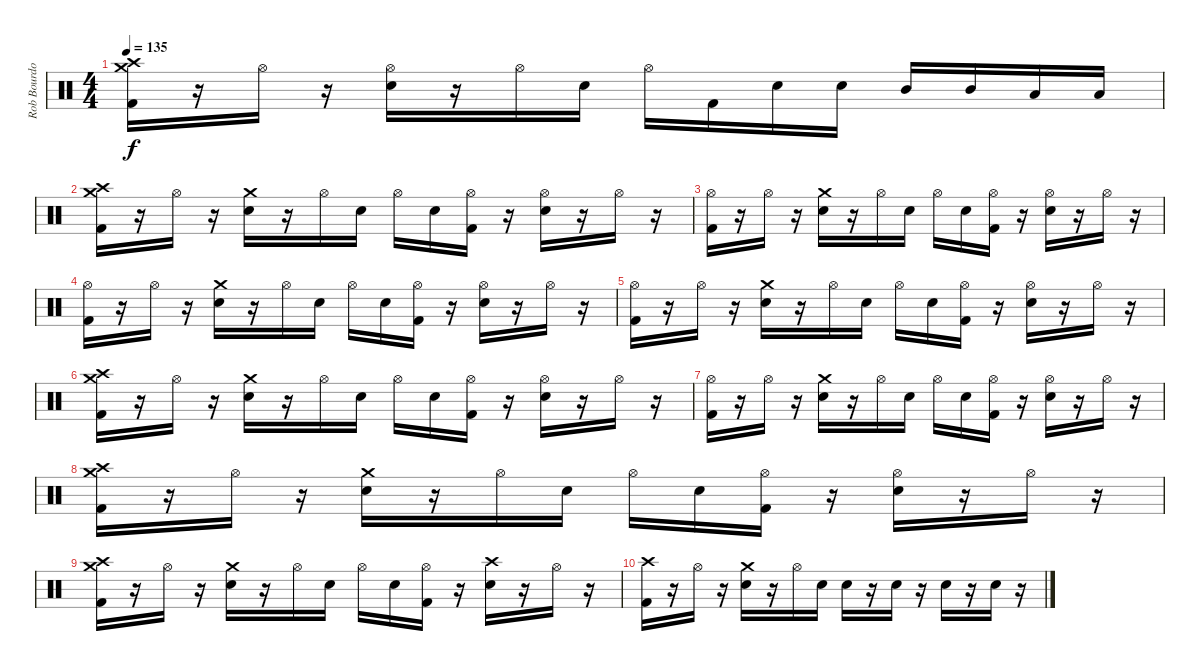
\track ("Rob Bourdon (Drums)" "Rob Bourdo") {instrument percussion}
\staff {score}
\articulation defaults
\ts (4 4)
\tempo 135
\clef neutral
\ks c
("Crash high (hit)" "Crash medium (hit)" "Kick (hit) 2").16{dy f} r.16 "Hi-Hat (open)".16 r.16 ("Hi-Hat (open)" "Electric Snare (hit)").16 r.16 "Hi-Hat (open)".16 "Electric Snare (hit)".16 "Hi-Hat (open)".16 "Kick (hit) 2".16 "Electric Snare (hit)".16 "Electric Snare (hit)".16 "Mid Tom (hit)".16 "Mid Tom (hit)".16 "Low Tom (hit)".16 "Low Tom (hit)".16 |
("Crash high (hit)" "Crash medium (hit)" "Kick (hit) 2").16 r.16 "Hi-Hat (open)".16 r.16 ("Crash medium (hit)" "Electric Snare (hit)").16 r.16 "Hi-Hat (open)".16 "Electric Snare (hit)".16 "Hi-Hat (open)".16 "Electric Snare (hit)".16 ("Hi-Hat (open)" "Kick (hit) 2").16 r.16 ("Hi-Hat (open)" "Electric Snare (hit)").16 r.16 "Hi-Hat (open)".16 r.16 |
("Hi-Hat (open)" "Kick (hit) 2").16 r.16 "Hi-Hat (open)".16 r.16 ("Crash medium (hit)" "Electric Snare (hit)").16 r.16 "Hi-Hat (open)".16 "Electric Snare (hit)".16 "Hi-Hat (open)".16 "Electric Snare (hit)".16 ("Hi-Hat (open)" "Kick (hit) 2").16 r.16 ("Hi-Hat (open)" "Electric Snare (hit)").16 r.16 "Hi-Hat (open)".16 r.16 |
("Hi-Hat (open)" "Kick (hit) 2").16 r.16 "Hi-Hat (open)".16 r.16 ("Crash medium (hit)" "Electric Snare (hit)").16 r.16 "Hi-Hat (open)".16 "Electric Snare (hit)".16 "Hi-Hat (open)".16 "Electric Snare (hit)".16 ("Hi-Hat (open)" "Kick (hit) 2").16 r.16 ("Hi-Hat (open)" "Electric Snare (hit)").16 r.16 "Hi-Hat (open)".16 r.16 |
("Hi-Hat (open)" "Kick (hit) 2").16 r.16 "Hi-Hat (open)".16 r.16 ("Crash medium (hit)" "Electric Snare (hit)").16 r.16 "Hi-Hat (open)".16 "Electric Snare (hit)".16 "Hi-Hat (open)".16 "Electric Snare (hit)".16 ("Hi-Hat (open)" "Kick (hit) 2").16 r.16 ("Hi-Hat (open)" "Electric Snare (hit)").16 r.16 "Hi-Hat (open)".16 r.16 |
("Crash high (hit)" "Crash medium (hit)" "Kick (hit) 2").16 r.16 "Hi-Hat (open)".16 r.16 ("Crash medium (hit)" "Electric Snare (hit)").16 r.16 "Hi-Hat (open)".16 "Electric Snare (hit)".16 "Hi-Hat (open)".16 "Electric Snare (hit)".16 ("Hi-Hat (open)" "Kick (hit) 2").16 r.16 ("Hi-Hat (open)" "Electric Snare (hit)").16 r.16 "Hi-Hat (open)".16 r.16 |
("Hi-Hat (open)" "Kick (hit) 2").16 r.16 "Hi-Hat (open)".16 r.16 ("Crash medium (hit)" "Electric Snare (hit)").16 r.16 "Hi-Hat (open)".16 "Electric Snare (hit)".16 "Hi-Hat (open)".16 "Electric Snare (hit)".16 ("Hi-Hat (open)" "Kick (hit) 2").16 r.16 ("Hi-Hat (open)" "Electric Snare (hit)").16 r.16 "Hi-Hat (open)".16 r.16 |
("Crash high (hit)" "Crash medium (hit)" "Kick (hit) 2").16 r.16 "Hi-Hat (open)".16 r.16 ("Crash medium (hit)" "Electric Snare (hit)").16 r.16 "Hi-Hat (open)".16 "Electric Snare (hit)".16 "Hi-Hat (open)".16 "Electric Snare (hit)".16 ("Hi-Hat (open)" "Kick (hit) 2").16 r.16 ("Hi-Hat (open)" "Electric Snare (hit)").16 r.16 "Hi-Hat (open)".16 r.16 |
("Crash high (hit)" "Crash medium (hit)" "Kick (hit) 2").16 r.16 "Hi-Hat (open)".16 r.16 ("Crash medium (hit)" "Electric Snare (hit)").16 r.16 "Hi-Hat (open)".16 "Electric Snare (hit)".16 "Hi-Hat (open)".16 "Electric Snare (hit)".16 ("Hi-Hat (open)" "Kick (hit) 2").16 r.16 ("Crash high (hit)" "Electric Snare (hit)").16 r.16 "Hi-Hat (open)".16 r.16 |
("Crash high (hit)" "Kick (hit) 2").16 r.16 "Hi-Hat (open)".16 r.16 ("Crash medium (hit)" "Electric Snare (hit)").16 r.16 "Hi-Hat (open)".16 "Electric Snare (hit)".16 "Electric Snare (hit)".16 r.16 "Electric Snare (hit)".16 r.16 "Electric Snare (hit)".16 r.16 "Electric Snare (hit)".16 r.16
